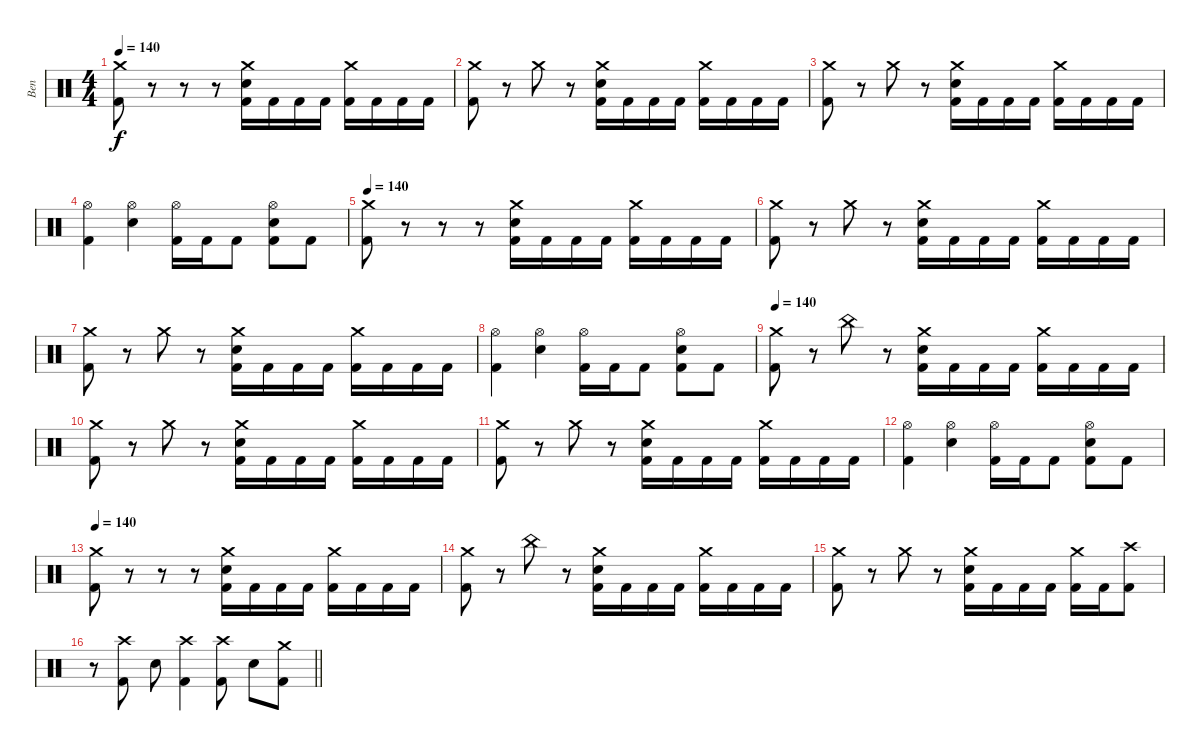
\track ("Ben" "Ben") {instrument percussion}
\staff {score}
\articulation defaults
\ts (4 4)
\tempo 140
\clef neutral
\ks c
("Crash medium (hit)" "Kick (hit) 2").8{dy f} r.8 r.8 r.8 ("Crash medium (hit)" "Electric Snare (hit)" "Kick (hit) 2").16 "Kick (hit) 2".16 "Kick (hit) 2".16 "Kick (hit) 2".16 ("Crash medium (hit)" "Kick (hit) 2").16 "Kick (hit) 2".16 "Kick (hit) 2".16 "Kick (hit) 2".16 |
("Crash medium (hit)" "Kick (hit) 2").8 r.8 "Crash medium (hit)".8 r.8 ("Crash medium (hit)" "Electric Snare (hit)" "Kick (hit) 2").16 "Kick (hit) 2".16 "Kick (hit) 2".16 "Kick (hit) 2".16 ("Crash medium (hit)" "Kick (hit) 2").16 "Kick (hit) 2".16 "Kick (hit) 2".16 "Kick (hit) 2".16 |
("Crash medium (hit)" "Kick (hit) 2").8 r.8 "Crash medium (hit)".8 r.8 ("Crash medium (hit)" "Electric Snare (hit)" "Kick (hit) 2").16 "Kick (hit) 2".16 "Kick (hit) 2".16 "Kick (hit) 2".16 ("Crash medium (hit)" "Kick (hit) 2").16 "Kick (hit) 2".16 "Kick (hit) 2".16 "Kick (hit) 2".16 |
("Hi-Hat (open)" "Kick (hit) 2").4 ("Hi-Hat (open)" "Electric Snare (hit)").4 ("Hi-Hat (open)" "Kick (hit) 2").16 "Kick (hit) 2".16 "Kick (hit) 2".8 ("Hi-Hat (open)" "Electric Snare (hit)" "Kick (hit) 2").8 "Kick (hit) 2".8 |
\tempo 140
("Crash medium (hit)" "Kick (hit) 2").8 r.8 r.8 r.8 ("Crash medium (hit)" "Electric Snare (hit)" "Kick (hit) 2").16 "Kick (hit) 2".16 "Kick (hit) 2".16 "Kick (hit) 2".16 ("Crash medium (hit)" "Kick (hit) 2").16 "Kick (hit) 2".16 "Kick (hit) 2".16 "Kick (hit) 2".16 |
("Crash medium (hit)" "Kick (hit) 2").8 r.8 "Crash medium (hit)".8 r.8 ("Crash medium (hit)" "Electric Snare (hit)" "Kick (hit) 2").16 "Kick (hit) 2".16 "Kick (hit) 2".16 "Kick (hit) 2".16 ("Crash medium (hit)" "Kick (hit) 2").16 "Kick (hit) 2".16 "Kick (hit) 2".16 "Kick (hit) 2".16 |
("Crash medium (hit)" "Kick (hit) 2").8 r.8 "Crash medium (hit)".8 r.8 ("Crash medium (hit)" "Electric Snare (hit)" "Kick (hit) 2").16 "Kick (hit) 2".16 "Kick (hit) 2".16 "Kick (hit) 2".16 ("Crash medium (hit)" "Kick (hit) 2").16 "Kick (hit) 2".16 "Kick (hit) 2".16 "Kick (hit) 2".16 |
("Hi-Hat (open)" "Kick (hit) 2").4 ("Hi-Hat (open)" "Electric Snare (hit)").4 ("Hi-Hat (open)" "Kick (hit) 2").16 "Kick (hit) 2".16 "Kick (hit) 2".8 ("Hi-Hat (open)" "Electric Snare (hit)" "Kick (hit) 2").8 "Kick (hit) 2".8 |
\tempo 140
("Crash medium (hit)" "Kick (hit) 2").8 r.8 "China (hit)".8 r.8 ("Crash medium (hit)" "Electric Snare (hit)" "Kick (hit) 2").16 "Kick (hit) 2".16 "Kick (hit) 2".16 "Kick (hit) 2".16 ("Crash medium (hit)" "Kick (hit) 2").16 "Kick (hit) 2".16 "Kick (hit) 2".16 "Kick (hit) 2".16 |
("Crash medium (hit)" "Kick (hit) 2").8 r.8 "Crash medium (hit)".8 r.8 ("Crash medium (hit)" "Electric Snare (hit)" "Kick (hit) 2").16 "Kick (hit) 2".16 "Kick (hit) 2".16 "Kick (hit) 2".16 ("Crash medium (hit)" "Kick (hit) 2").16 "Kick (hit) 2".16 "Kick (hit) 2".16 "Kick (hit) 2".16 |
("Crash medium (hit)" "Kick (hit) 2").8 r.8 "Crash medium (hit)".8 r.8 ("Crash medium (hit)" "Electric Snare (hit)" "Kick (hit) 2").16 "Kick (hit) 2".16 "Kick (hit) 2".16 "Kick (hit) 2".16 ("Crash medium (hit)" "Kick (hit) 2").16 "Kick (hit) 2".16 "Kick (hit) 2".16 "Kick (hit) 2".16 |
("Hi-Hat (open)" "Kick (hit) 2").4 ("Hi-Hat (open)" "Electric Snare (hit)").4 ("Hi-Hat (open)" "Kick (hit) 2").16 "Kick (hit) 2".16 "Kick (hit) 2".8 ("Hi-Hat (open)" "Electric Snare (hit)" "Kick (hit) 2").8 "Kick (hit) 2".8 |
\tempo 140
("Crash medium (hit)" "Kick (hit) 2").8 r.8 r.8 r.8 ("Crash medium (hit)" "Electric Snare (hit)" "Kick (hit) 2").16 "Kick (hit) 2".16 "Kick (hit) 2".16 "Kick (hit) 2".16 ("Crash medium (hit)" "Kick (hit) 2").16 "Kick (hit) 2".16 "Kick (hit) 2".16 "Kick (hit) 2".16 |
("Crash medium (hit)" "Kick (hit) 2").8 r.8 "China (hit)".8 r.8 ("Crash medium (hit)" "Electric Snare (hit)" "Kick (hit) 2").16 "Kick (hit) 2".16 "Kick (hit) 2".16 "Kick (hit) 2".16 ("Crash medium (hit)" "Kick (hit) 2").16 "Kick (hit) 2".16 "Kick (hit) 2".16 "Kick (hit) 2".16 |
("Crash medium (hit)" "Kick (hit) 2").8 r.8 "Crash medium (hit)".8 r.8 ("Crash medium (hit)" "Electric Snare (hit)" "Kick (hit) 2").16 "Kick (hit) 2".16 "Kick (hit) 2".16 "Kick (hit) 2".16 ("Crash medium (hit)" "Kick (hit) 2").16 "Kick (hit) 2".16 ("Crash high (hit)" "Kick (hit) 2").8 |
\barLineRight lightlight
r.8 ("Crash high (hit)" "Kick (hit) 2").8 "Electric Snare (hit)".8 ("Crash high (hit)" "Kick (hit) 2").4 ("Crash high (hit)" "Kick (hit) 2").8 "Electric Snare (hit)".8 ("Crash medium (hit)" "Kick (hit) 2").8
